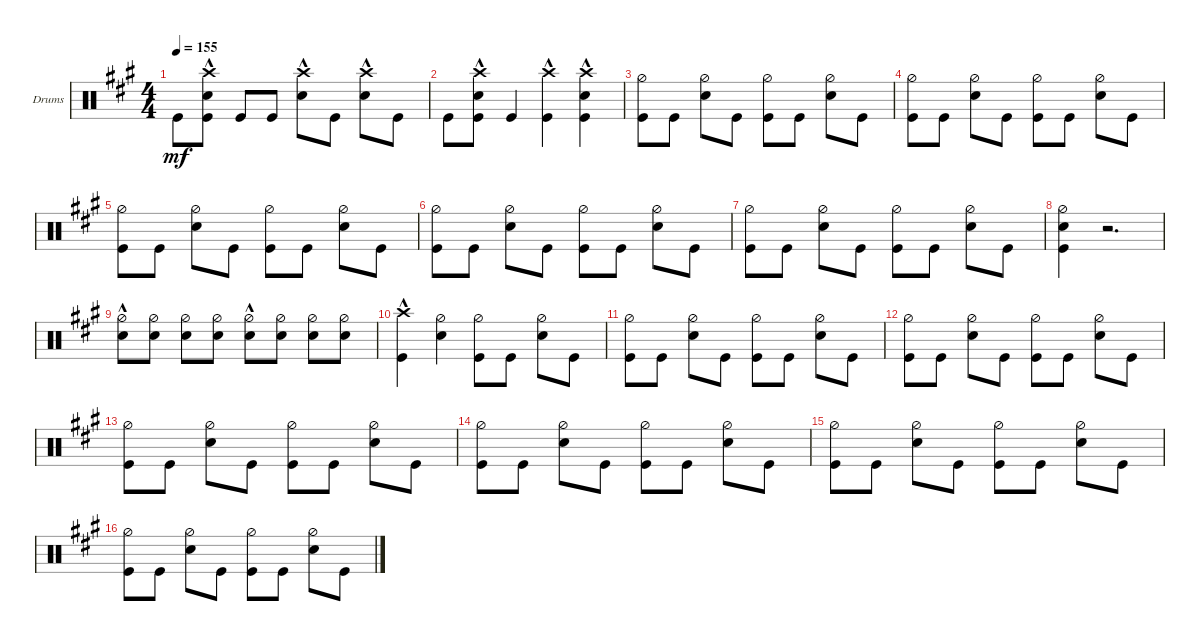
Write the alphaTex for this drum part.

\defaultSystemsLayout 4
\bracketExtendMode groupsimilarinstruments
\firstSystemTrackNameOrientation horizontal
\otherSystemsTrackNameOrientation horizontal
\track ("John Bonham" "Drums") {instrument percussion}
\staff {score}
\articulation defaults
\ts (4 4)
\tempo 155
\clef neutral
\ks a "Kick (hit)".8{dy mf}
("Kick (hit)" "Snare (hit) 2"{hac} "Crash high (hit)"{hac}).8 "Kick (hit)".8 "Kick (hit)".8 ("Snare (hit) 2"{hac} "Crash high (hit)"{hac}).8 "Kick (hit)".8 ("Snare (hit) 2"{hac} "Crash high (hit)"{hac}).8 "Kick (hit)".8 |
"Kick (hit)".8 ("Kick (hit)" "Snare (hit) 2"{hac} "Crash high (hit)"{hac}).8 "Kick (hit)".4 ("Kick (hit)" "Crash high (hit)"{hac}).4 ("Kick (hit)" "Snare (hit) 2"{hac} "Crash high (hit)"{hac}).4 |
("Hi-Hat (half)" "Kick (hit)").8 "Kick (hit)".8 ("Snare (hit) 2" "Hi-Hat (half)").8 "Kick (hit)".8 ("Kick (hit)" "Hi-Hat (half)").8 "Kick (hit)".8 ("Hi-Hat (half)" "Snare (hit) 2").8 "Kick (hit)".8 |
("Hi-Hat (half)" "Kick (hit)").8 "Kick (hit)".8 ("Snare (hit) 2" "Hi-Hat (half)").8 "Kick (hit)".8 ("Kick (hit)" "Hi-Hat (half)").8 "Kick (hit)".8 ("Hi-Hat (half)" "Snare (hit) 2").8 "Kick (hit)".8 |
("Hi-Hat (half)" "Kick (hit)").8 "Kick (hit)".8 ("Snare (hit) 2" "Hi-Hat (half)").8 "Kick (hit)".8 ("Kick (hit)" "Hi-Hat (half)").8 "Kick (hit)".8 ("Hi-Hat (half)" "Snare (hit) 2").8 "Kick (hit)".8 |
("Hi-Hat (half)" "Kick (hit)").8 "Kick (hit)".8 ("Snare (hit) 2" "Hi-Hat (half)").8 "Kick (hit)".8 ("Kick (hit)" "Hi-Hat (half)").8 "Kick (hit)".8 ("Hi-Hat (half)" "Snare (hit) 2").8 "Kick (hit)".8 |
("Hi-Hat (half)" "Kick (hit)").8 "Kick (hit)".8 ("Snare (hit) 2" "Hi-Hat (half)").8 "Kick (hit)".8 ("Kick (hit)" "Hi-Hat (half)").8 "Kick (hit)".8 ("Hi-Hat (half)" "Snare (hit) 2").8 "Kick (hit)".8 |
("Kick (hit)" "Snare (hit) 2" "Hi-Hat (half)").4 r.2{d} |
("Hi-Hat (half)"{hac} "Snare (hit) 2"{hac}).8 ("Hi-Hat (half)" "Snare (hit) 2").8 ("Hi-Hat (half)" "Snare (hit) 2").8 ("Hi-Hat (half)" "Snare (hit) 2").8 ("Hi-Hat (half)"{hac} "Snare (hit) 2"{hac}).8 ("Hi-Hat (half)" "Snare (hit) 2").8 ("Hi-Hat (half)" "Snare (hit) 2").8 ("Hi-Hat (half)" "Snare (hit) 2").8 |
("Crash high (hit)"{hac} "Kick (hit)").4 ("Hi-Hat (half)" "Snare (hit) 2").4 ("Hi-Hat (half)" "Kick (hit)").8 "Kick (hit)".8 ("Snare (hit) 2" "Hi-Hat (half)").8 "Kick (hit)".8 |
("Hi-Hat (half)" "Kick (hit)").8 "Kick (hit)".8 ("Snare (hit) 2" "Hi-Hat (half)").8 "Kick (hit)".8 ("Kick (hit)" "Hi-Hat (half)").8 "Kick (hit)".8 ("Hi-Hat (half)" "Snare (hit) 2").8 "Kick (hit)".8 |
("Hi-Hat (half)" "Kick (hit)").8 "Kick (hit)".8 ("Snare (hit) 2" "Hi-Hat (half)").8 "Kick (hit)".8 ("Kick (hit)" "Hi-Hat (half)").8 "Kick (hit)".8 ("Hi-Hat (half)" "Snare (hit) 2").8 "Kick (hit)".8 |
("Hi-Hat (half)" "Kick (hit)").8 "Kick (hit)".8 ("Snare (hit) 2" "Hi-Hat (half)").8 "Kick (hit)".8 ("Kick (hit)" "Hi-Hat (half)").8 "Kick (hit)".8 ("Hi-Hat (half)" "Snare (hit) 2").8 "Kick (hit)".8 |
("Hi-Hat (half)" "Kick (hit)").8 "Kick (hit)".8 ("Snare (hit) 2" "Hi-Hat (half)").8 "Kick (hit)".8 ("Kick (hit)" "Hi-Hat (half)").8 "Kick (hit)".8 ("Hi-Hat (half)" "Snare (hit) 2").8 "Kick (hit)".8 |
("Hi-Hat (half)" "Kick (hit)").8 "Kick (hit)".8 ("Snare (hit) 2" "Hi-Hat (half)").8 "Kick (hit)".8 ("Kick (hit)" "Hi-Hat (half)").8 "Kick (hit)".8 ("Hi-Hat (half)" "Snare (hit) 2").8 "Kick (hit)".8 |
("Hi-Hat (half)" "Kick (hit)").8 "Kick (hit)".8 ("Snare (hit) 2" "Hi-Hat (half)").8 "Kick (hit)".8 ("Kick (hit)" "Hi-Hat (half)").8 "Kick (hit)".8 ("Hi-Hat (half)" "Snare (hit) 2").8 "Kick (hit)".8
